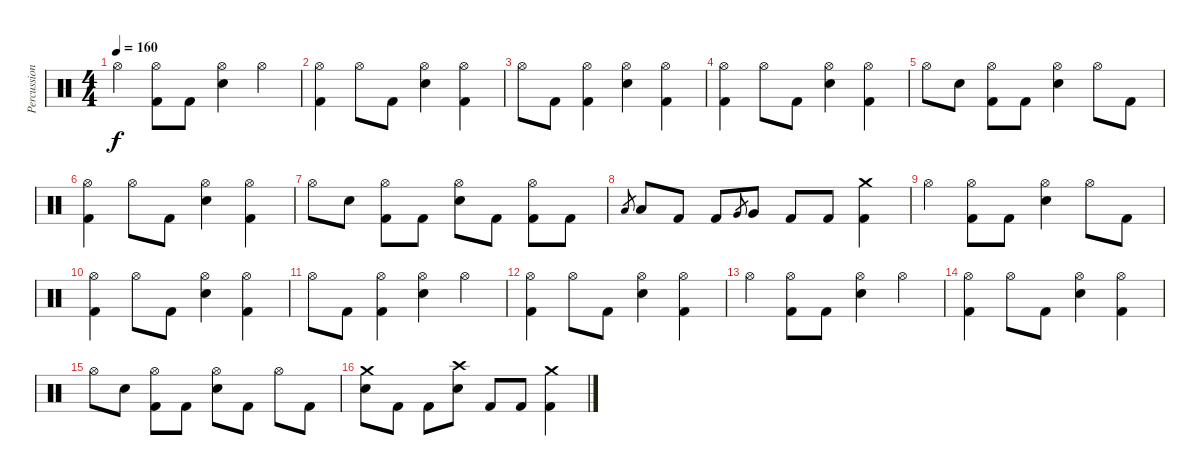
\track ("Percussion" "Percussion") {instrument percussion}
\staff {score}
\articulation defaults
\ts (4 4)
\tempo 160
\clef neutral
\ks c "Hi-Hat (open)".4{dy f}
("Hi-Hat (open)" "Kick (hit) 2").8 "Kick (hit) 2".8 ("Hi-Hat (open)" "Snare (hit) 2").4 "Hi-Hat (open)".4 |
("Hi-Hat (open)" "Kick (hit) 2").4 "Hi-Hat (open)".8 "Kick (hit) 2".8 ("Hi-Hat (open)" "Snare (hit) 2").4 ("Hi-Hat (open)" "Kick (hit) 2").4 |
"Hi-Hat (open)".8 "Kick (hit) 2".8 ("Hi-Hat (open)" "Kick (hit) 2").4 ("Hi-Hat (open)" "Snare (hit) 2").4 ("Hi-Hat (open)" "Kick (hit) 2").4 |
("Hi-Hat (open)" "Kick (hit) 2").4 "Hi-Hat (open)".8 "Kick (hit) 2".8 ("Hi-Hat (open)" "Snare (hit) 2").4 ("Hi-Hat (open)" "Kick (hit) 2").4 |
"Hi-Hat (open)".8 "Snare (hit) 2".8 ("Hi-Hat (open)" "Kick (hit) 2").8 "Kick (hit) 2".8 ("Hi-Hat (open)" "Snare (hit) 2").4 "Hi-Hat (open)".8 "Kick (hit) 2".8 |
("Hi-Hat (open)" "Kick (hit) 2").4 "Hi-Hat (open)".8 "Kick (hit) 2".8 ("Hi-Hat (open)" "Snare (hit) 2").4 ("Hi-Hat (open)" "Kick (hit) 2").4 |
"Hi-Hat (open)".8 "Snare (hit) 2".8 ("Hi-Hat (open)" "Kick (hit) 2").8 "Kick (hit) 2".8 ("Hi-Hat (open)" "Snare (hit) 2").8 "Kick (hit) 2".8 ("Hi-Hat (open)" "Kick (hit) 2").8 "Kick (hit) 2".8 |
"Low Tom (hit)".8{gr} "Low Tom (hit)".8 "Kick (hit) 2".8 "Kick (hit) 2".8 "Very Low Tom (hit)".8{gr} "Very Low Tom (hit)".8 "Kick (hit) 2".8 "Kick (hit) 2".8 ("Crash medium (hit)" "Kick (hit) 2").4 |
"Hi-Hat (open)".4 ("Hi-Hat (open)" "Kick (hit) 2").8 "Kick (hit) 2".8 ("Hi-Hat (open)" "Snare (hit) 2").4 "Hi-Hat (open)".8 "Kick (hit) 2".8 |
("Hi-Hat (open)" "Kick (hit) 2").4 "Hi-Hat (open)".8 "Kick (hit) 2".8 ("Hi-Hat (open)" "Snare (hit) 2").4 ("Hi-Hat (open)" "Kick (hit) 2").4 |
"Hi-Hat (open)".8 "Kick (hit) 2".8 ("Hi-Hat (open)" "Kick (hit) 2").4 ("Hi-Hat (open)" "Snare (hit) 2").4 "Hi-Hat (open)".4 |
("Hi-Hat (open)" "Kick (hit) 2").4 "Hi-Hat (open)".8 "Kick (hit) 2".8 ("Hi-Hat (open)" "Snare (hit) 2").4 ("Hi-Hat (open)" "Kick (hit) 2").4 |
"Hi-Hat (open)".4 ("Hi-Hat (open)" "Kick (hit) 2").8 "Kick (hit) 2".8 ("Hi-Hat (open)" "Snare (hit) 2").4 "Hi-Hat (open)".4 |
("Hi-Hat (open)" "Kick (hit) 2").4 "Hi-Hat (open)".8 "Kick (hit) 2".8 ("Hi-Hat (open)" "Snare (hit) 2").4 ("Hi-Hat (open)" "Kick (hit) 2").4 |
"Hi-Hat (open)".8 "Snare (hit) 2".8 ("Hi-Hat (open)" "Kick (hit) 2").8 "Kick (hit) 2".8 ("Hi-Hat (open)" "Snare (hit) 2").8 "Kick (hit) 2".8 "Hi-Hat (open)".8 "Kick (hit) 2".8 |
("Crash medium (hit)" "Snare (hit) 2").8 "Kick (hit) 2".8 "Kick (hit) 2".8 ("Crash high (hit)" "Snare (hit) 2").8 "Kick (hit) 2".8 "Kick (hit) 2".8 ("Crash medium (hit)" "Kick (hit) 2").4
